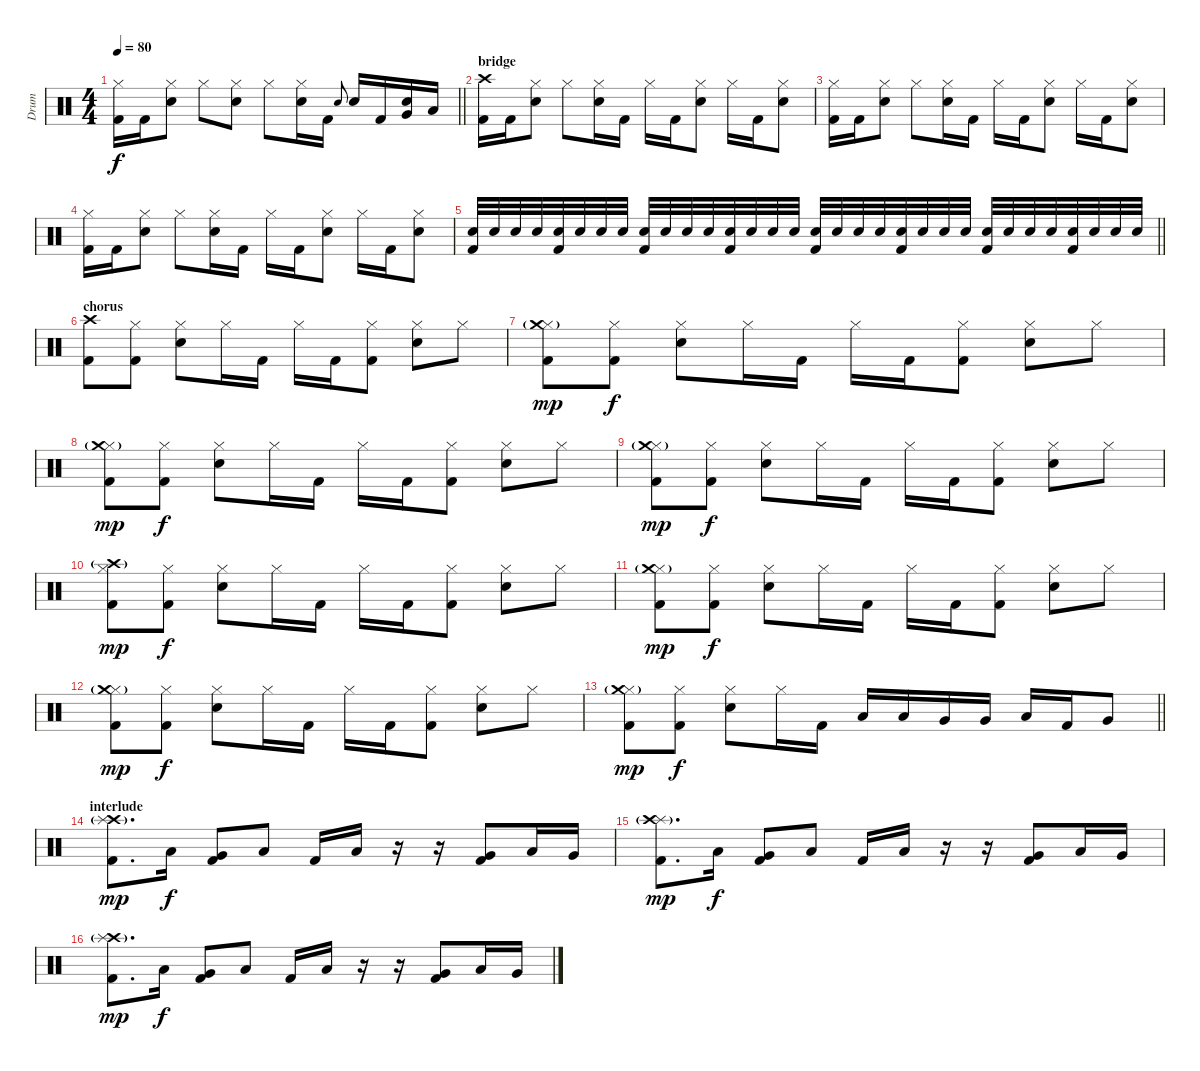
\track ("Drum" "Drum") {instrument percussion}
\staff {score}
\articulation defaults
\ts (4 4)
\tempo 80
\clef neutral
\barLineRight lightlight
\ks c
("Hi-Hat (closed)" "Kick (hit) 2").16{dy f} "Kick (hit) 2".16 ("Hi-Hat (closed)" "Electric Snare (hit)").8 "Hi-Hat (closed)".8 ("Hi-Hat (closed)" "Electric Snare (hit)").8 "Hi-Hat (closed)".8 ("Hi-Hat (closed)" "Electric Snare (hit)").16 "Kick (hit) 2".16 "Electric Snare (hit)".8{gr onbeat} "Electric Snare (hit)".16 "Kick (hit) 2".16 ("Electric Snare (hit)" "Very Low Tom (hit)").16 "Low Floor Tom (hit)".16 |
\section ("" "bridge")
("Crash high (hit)" "Kick (hit) 2").16 "Kick (hit) 2".16 ("Hi-Hat (closed)" "Electric Snare (hit)").8 "Hi-Hat (closed)".8 ("Hi-Hat (closed)" "Electric Snare (hit)").16 "Kick (hit) 2".16 "Hi-Hat (closed)".16 "Kick (hit) 2".16 ("Hi-Hat (closed)" "Electric Snare (hit)").8 "Hi-Hat (closed)".16 "Kick (hit) 2".16 ("Hi-Hat (closed)" "Electric Snare (hit)").8 |
("Hi-Hat (closed)" "Kick (hit) 2").16 "Kick (hit) 2".16 ("Hi-Hat (closed)" "Electric Snare (hit)").8 "Hi-Hat (closed)".8 ("Hi-Hat (closed)" "Electric Snare (hit)").16 "Kick (hit) 2".16 "Hi-Hat (closed)".16 "Kick (hit) 2".16 ("Hi-Hat (closed)" "Electric Snare (hit)").8 "Hi-Hat (closed)".16 "Kick (hit) 2".16 ("Hi-Hat (closed)" "Electric Snare (hit)").8 |
("Hi-Hat (closed)" "Kick (hit) 2").16 "Kick (hit) 2".16 ("Hi-Hat (closed)" "Electric Snare (hit)").8 "Hi-Hat (closed)".8 ("Hi-Hat (closed)" "Electric Snare (hit)").16 "Kick (hit) 2".16 "Hi-Hat (closed)".16 "Kick (hit) 2".16 ("Hi-Hat (closed)" "Electric Snare (hit)").8 "Hi-Hat (closed)".16 "Kick (hit) 2".16 ("Hi-Hat (closed)" "Electric Snare (hit)").8 |
\barLineRight lightlight
("Electric Snare (hit)" "Kick (hit) 2").32{volume 8} "Electric Snare (hit)".32 "Electric Snare (hit)".32 "Electric Snare (hit)".32 ("Electric Snare (hit)" "Kick (hit) 2").32 "Electric Snare (hit)".32 "Electric Snare (hit)".32 "Electric Snare (hit)".32 ("Electric Snare (hit)" "Kick (hit) 2").32{volume 10} "Electric Snare (hit)".32 "Electric Snare (hit)".32 "Electric Snare (hit)".32 ("Electric Snare (hit)" "Kick (hit) 2").32 "Electric Snare (hit)".32 "Electric Snare (hit)".32 "Electric Snare (hit)".32 ("Electric Snare (hit)" "Kick (hit) 2").32{volume 12} "Electric Snare (hit)".32 "Electric Snare (hit)".32 "Electric Snare (hit)".32 ("Electric Snare (hit)" "Kick (hit) 2").32 "Electric Snare (hit)".32 "Electric Snare (hit)".32 "Electric Snare (hit)".32 ("Electric Snare (hit)" "Kick (hit) 2").32{volume 14} "Electric Snare (hit)".32 "Electric Snare (hit)".32 "Electric Snare (hit)".32 ("Electric Snare (hit)" "Kick (hit) 2").32 "Electric Snare (hit)".32 "Electric Snare (hit)".32 "Electric Snare (hit)".32 |
\section ("" "chorus")
("Crash high (hit)" "Kick (hit) 2").8 ("Hi-Hat (closed)" "Kick (hit) 2").8 ("Hi-Hat (closed)" "Electric Snare (hit)").8 "Hi-Hat (closed)".16 "Kick (hit) 2".16 "Hi-Hat (closed)".16 "Kick (hit) 2".16 ("Hi-Hat (closed)" "Kick (hit) 2").8 ("Hi-Hat (closed)" "Electric Snare (hit)").8 "Hi-Hat (closed)".8 |
("Hi-Hat (closed)" "Kick (hit) 2" "Crash medium (hit)"{g}).8{dy mp} ("Hi-Hat (closed)" "Kick (hit) 2").8{dy f} ("Hi-Hat (closed)" "Electric Snare (hit)").8 "Hi-Hat (closed)".16 "Kick (hit) 2".16 "Hi-Hat (closed)".16 "Kick (hit) 2".16 ("Hi-Hat (closed)" "Kick (hit) 2").8 ("Hi-Hat (closed)" "Electric Snare (hit)").8 "Hi-Hat (closed)".8 |
("Hi-Hat (closed)" "Kick (hit) 2" "Crash medium (hit)"{g}).8{dy mp} ("Hi-Hat (closed)" "Kick (hit) 2").8{dy f} ("Hi-Hat (closed)" "Electric Snare (hit)").8 "Hi-Hat (closed)".16 "Kick (hit) 2".16 "Hi-Hat (closed)".16 "Kick (hit) 2".16 ("Hi-Hat (closed)" "Kick (hit) 2").8 ("Hi-Hat (closed)" "Electric Snare (hit)").8 "Hi-Hat (closed)".8 |
("Hi-Hat (closed)" "Kick (hit) 2" "Crash medium (hit)"{g}).8{dy mp} ("Hi-Hat (closed)" "Kick (hit) 2").8{dy f} ("Hi-Hat (closed)" "Electric Snare (hit)").8 "Hi-Hat (closed)".16 "Kick (hit) 2".16 "Hi-Hat (closed)".16 "Kick (hit) 2".16 ("Hi-Hat (closed)" "Kick (hit) 2").8 ("Hi-Hat (closed)" "Electric Snare (hit)").8 "Hi-Hat (closed)".8 |
("Hi-Hat (closed)" "Kick (hit) 2" "Crash high (hit)"{g}).8{dy mp} ("Hi-Hat (closed)" "Kick (hit) 2").8{dy f} ("Hi-Hat (closed)" "Electric Snare (hit)").8 "Hi-Hat (closed)".16 "Kick (hit) 2".16 "Hi-Hat (closed)".16 "Kick (hit) 2".16 ("Hi-Hat (closed)" "Kick (hit) 2").8 ("Hi-Hat (closed)" "Electric Snare (hit)").8 "Hi-Hat (closed)".8 |
("Hi-Hat (closed)" "Kick (hit) 2" "Crash medium (hit)"{g}).8{dy mp} ("Hi-Hat (closed)" "Kick (hit) 2").8{dy f} ("Hi-Hat (closed)" "Electric Snare (hit)").8 "Hi-Hat (closed)".16 "Kick (hit) 2".16 "Hi-Hat (closed)".16 "Kick (hit) 2".16 ("Hi-Hat (closed)" "Kick (hit) 2").8 ("Hi-Hat (closed)" "Electric Snare (hit)").8 "Hi-Hat (closed)".8 |
("Hi-Hat (closed)" "Kick (hit) 2" "Crash medium (hit)"{g}).8{dy mp} ("Hi-Hat (closed)" "Kick (hit) 2").8{dy f} ("Hi-Hat (closed)" "Electric Snare (hit)").8 "Hi-Hat (closed)".16 "Kick (hit) 2".16 "Hi-Hat (closed)".16 "Kick (hit) 2".16 ("Hi-Hat (closed)" "Kick (hit) 2").8 ("Hi-Hat (closed)" "Electric Snare (hit)").8 "Hi-Hat (closed)".8 |
\barLineRight lightlight
("Hi-Hat (closed)" "Kick (hit) 2" "Crash medium (hit)"{g}).8{dy mp} ("Hi-Hat (closed)" "Kick (hit) 2").8{dy f} ("Hi-Hat (closed)" "Electric Snare (hit)").8 "Hi-Hat (closed)".16 "Kick (hit) 2".16 "Low Tom (hit)".16 "Low Tom (hit)".16 "Very Low Tom (hit)".16 "Very Low Tom (hit)".16 "Low Floor Tom (hit)".16 "Kick (hit) 2".16 "Very Low Tom (hit)".8 |
\section ("" "interlude")
("Crash high (hit)"{g} "Splash (hit)"{g} "Kick (hit) 2").8{d dy mp} "Low Tom (hit)".16{dy f} ("Very Low Tom (hit)" "Kick (hit) 2").8 "Low Tom (hit)".8 "Kick (hit) 2".16 "Low Tom (hit)".16 r.16 r.16 ("Very Low Tom (hit)" "Kick (hit) 2").8 "Low Floor Tom (hit)".16 "Very Low Tom (hit)".16 |
("Splash (hit)"{g} "Crash high (hit)"{g} "Kick (hit) 2").8{d dy mp} "Low Tom (hit)".16{dy f} ("Very Low Tom (hit)" "Kick (hit) 2").8 "Low Tom (hit)".8 "Kick (hit) 2".16 "Low Tom (hit)".16 r.16 r.16 ("Very Low Tom (hit)" "Kick (hit) 2").8 "Low Floor Tom (hit)".16 "Very Low Tom (hit)".16 |
("Crash high (hit)"{g} "Splash (hit)"{g} "Kick (hit) 2").8{d dy mp} "Low Tom (hit)".16{dy f} ("Very Low Tom (hit)" "Kick (hit) 2").8 "Low Tom (hit)".8 "Kick (hit) 2".16 "Low Tom (hit)".16 r.16 r.16 ("Very Low Tom (hit)" "Kick (hit) 2").8 "Low Floor Tom (hit)".16 "Very Low Tom (hit)".16
